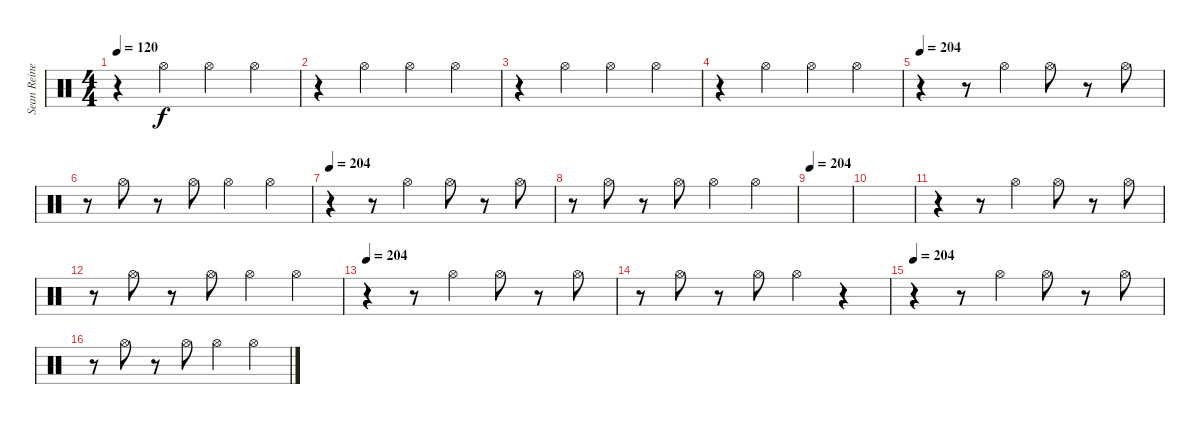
\track ("Sean Reinert" "Sean Reine") {instrument percussion}
\staff {score}
\articulation defaults
\ts (4 4)
\tempo 120
\clef neutral
\ks c
r.4{dy f} "Hi-Hat (open)".4 "Hi-Hat (open)".4 "Hi-Hat (open)".4 |
r.4 "Hi-Hat (open)".4 "Hi-Hat (open)".4 "Hi-Hat (open)".4 |
r.4 "Hi-Hat (open)".4 "Hi-Hat (open)".4 "Hi-Hat (open)".4 |
r.4 "Hi-Hat (open)".4 "Hi-Hat (open)".4 "Hi-Hat (open)".4 |
\tempo 204
r.4 r.8 "Hi-Hat (open)".4 "Hi-Hat (open)".8 r.8 "Hi-Hat (open)".8 |
r.8 "Hi-Hat (open)".8 r.8 "Hi-Hat (open)".8 "Hi-Hat (open)".4 "Hi-Hat (open)".4 |
\tempo 204
r.4 r.8 "Hi-Hat (open)".4 "Hi-Hat (open)".8 r.8 "Hi-Hat (open)".8 |
r.8 "Hi-Hat (open)".8 r.8 "Hi-Hat (open)".8 "Hi-Hat (open)".4 "Hi-Hat (open)".4 |
\tempo 204
|
|
r.4 r.8 "Hi-Hat (open)".4 "Hi-Hat (open)".8 r.8 "Hi-Hat (open)".8 |
r.8 "Hi-Hat (open)".8 r.8 "Hi-Hat (open)".8 "Hi-Hat (open)".4 "Hi-Hat (open)".4 |
\tempo 204
r.4 r.8 "Hi-Hat (open)".4 "Hi-Hat (open)".8 r.8 "Hi-Hat (open)".8 |
r.8 "Hi-Hat (open)".8 r.8 "Hi-Hat (open)".8 "Hi-Hat (open)".4 r.4 |
\tempo 204
r.4 r.8 "Hi-Hat (open)".4 "Hi-Hat (open)".8 r.8 "Hi-Hat (open)".8 |
r.8 "Hi-Hat (open)".8 r.8 "Hi-Hat (open)".8 "Hi-Hat (open)".4 "Hi-Hat (open)".4
